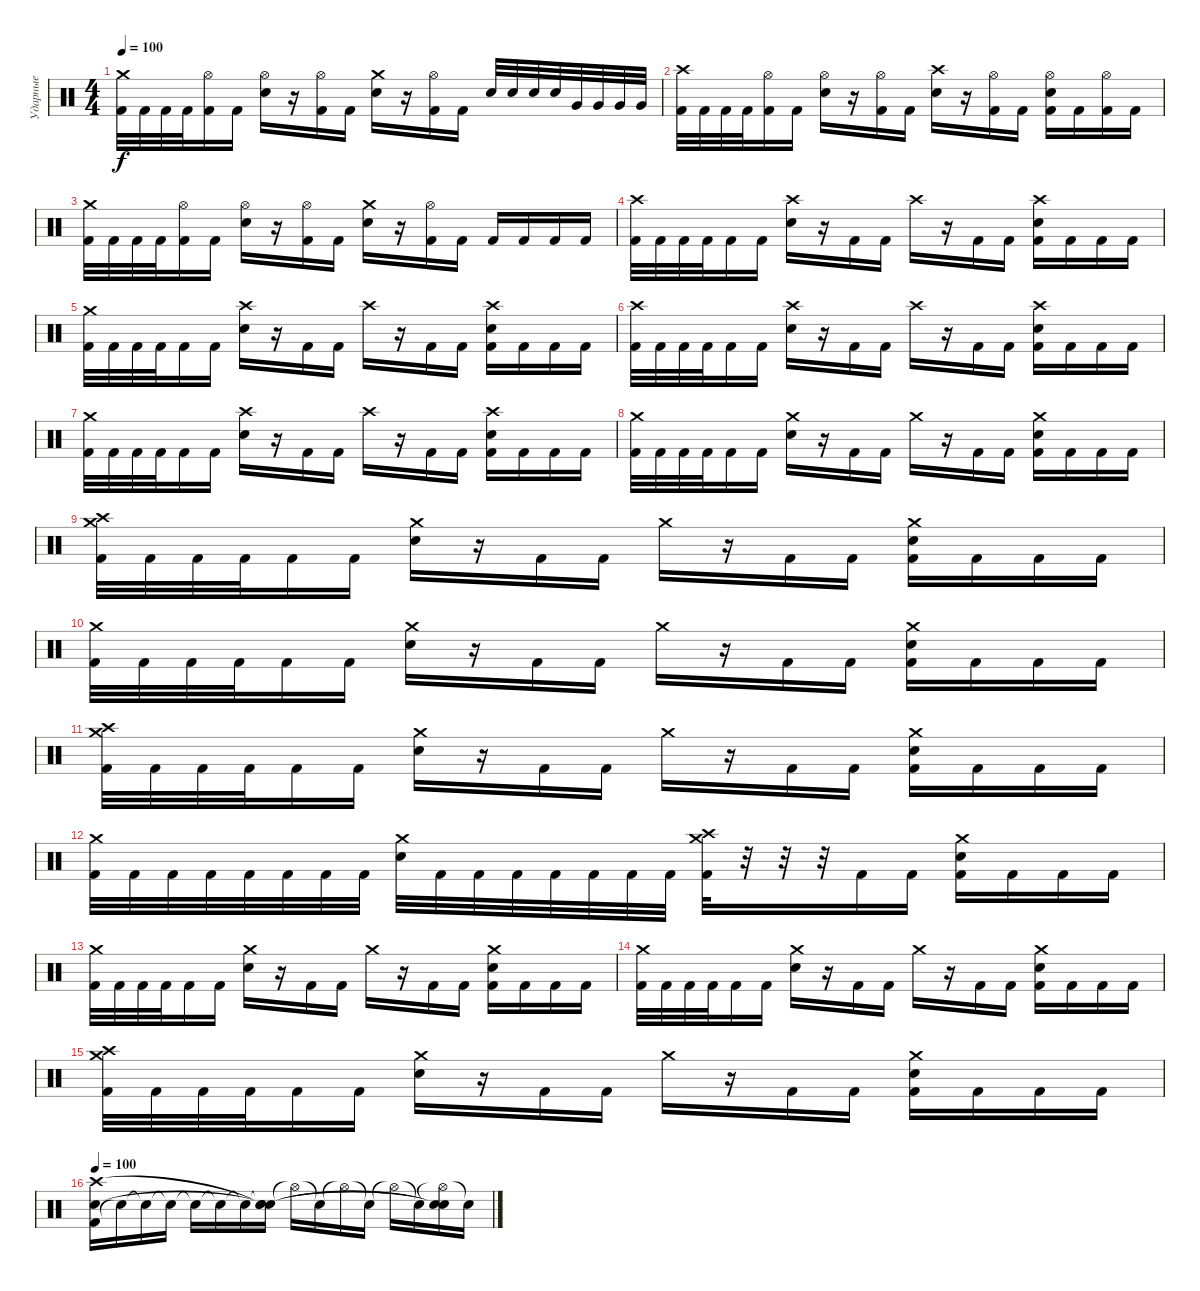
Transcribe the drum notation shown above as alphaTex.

\track ("Ударные" "Ударные") {instrument percussion}
\staff {score}
\articulation defaults
\ts (4 4)
\tempo 100
\clef neutral
\ks c
("Crash medium (hit)" "Kick (hit) 2").32{dy f} "Kick (hit) 2".32 "Kick (hit) 2".32 "Kick (hit) 2".32 ("Hi-Hat (open)" "Kick (hit) 2").16 "Kick (hit) 2".16 ("Hi-Hat (open)" "Snare (hit) 2").16 r.16 ("Hi-Hat (open)" "Kick (hit) 2").16 "Kick (hit) 2".16 ("Crash medium (hit)" "Snare (hit) 2").16 r.16 ("Hi-Hat (open)" "Kick (hit) 2").16 "Kick (hit) 2".16 "Snare (hit) 2".32 "Snare (hit) 2".32 "Snare (hit) 2".32 "Snare (hit) 2".32 "Very Low Tom (hit)".32 "Very Low Tom (hit)".32 "Very Low Tom (hit)".32 "Very Low Tom (hit)".32 |
("Crash high (hit)" "Kick (hit) 2").32 "Kick (hit) 2".32 "Kick (hit) 2".32 "Kick (hit) 2".32 ("Hi-Hat (open)" "Kick (hit) 2").16 "Kick (hit) 2".16 ("Hi-Hat (open)" "Snare (hit) 2").16 r.16 ("Hi-Hat (open)" "Kick (hit) 2").16 "Kick (hit) 2".16 ("Crash high (hit)" "Snare (hit) 2").16 r.16 ("Hi-Hat (open)" "Kick (hit) 2").16 "Kick (hit) 2".16 ("Hi-Hat (open)" "Snare (hit) 2" "Kick (hit) 2").16 "Kick (hit) 2".16 ("Hi-Hat (open)" "Kick (hit) 2").16 "Kick (hit) 2".16 |
("Crash medium (hit)" "Kick (hit) 2").32 "Kick (hit) 2".32 "Kick (hit) 2".32 "Kick (hit) 2".32 ("Hi-Hat (open)" "Kick (hit) 2").16 "Kick (hit) 2".16 ("Hi-Hat (open)" "Snare (hit) 2").16 r.16 ("Hi-Hat (open)" "Kick (hit) 2").16 "Kick (hit) 2".16 ("Crash medium (hit)" "Snare (hit) 2").16 r.16 ("Hi-Hat (open)" "Kick (hit) 2").16 "Kick (hit) 2".16 "Kick (hit) 2".16 "Kick (hit) 2".16 "Kick (hit) 2".16 "Kick (hit) 2".16 |
("Crash high (hit)" "Kick (hit) 2").32 "Kick (hit) 2".32 "Kick (hit) 2".32 "Kick (hit) 2".32 "Kick (hit) 2".16 "Kick (hit) 2".16 ("Crash high (hit)" "Snare (hit) 2").16 r.16 "Kick (hit) 2".16 "Kick (hit) 2".16 "Crash high (hit)".16 r.16 "Kick (hit) 2".16 "Kick (hit) 2".16 ("Crash high (hit)" "Snare (hit) 2" "Kick (hit) 2").16 "Kick (hit) 2".16 "Kick (hit) 2".16 "Kick (hit) 2".16 |
("Crash medium (hit)" "Kick (hit) 2").32 "Kick (hit) 2".32 "Kick (hit) 2".32 "Kick (hit) 2".32 "Kick (hit) 2".16 "Kick (hit) 2".16 ("Crash high (hit)" "Snare (hit) 2").16 r.16 "Kick (hit) 2".16 "Kick (hit) 2".16 "Crash high (hit)".16 r.16 "Kick (hit) 2".16 "Kick (hit) 2".16 ("Crash high (hit)" "Snare (hit) 2" "Kick (hit) 2").16 "Kick (hit) 2".16 "Kick (hit) 2".16 "Kick (hit) 2".16 |
("Crash high (hit)" "Kick (hit) 2").32 "Kick (hit) 2".32 "Kick (hit) 2".32 "Kick (hit) 2".32 "Kick (hit) 2".16 "Kick (hit) 2".16 ("Crash high (hit)" "Snare (hit) 2").16 r.16 "Kick (hit) 2".16 "Kick (hit) 2".16 "Crash high (hit)".16 r.16 "Kick (hit) 2".16 "Kick (hit) 2".16 ("Crash high (hit)" "Snare (hit) 2" "Kick (hit) 2").16 "Kick (hit) 2".16 "Kick (hit) 2".16 "Kick (hit) 2".16 |
("Crash medium (hit)" "Kick (hit) 2").32 "Kick (hit) 2".32 "Kick (hit) 2".32 "Kick (hit) 2".32 "Kick (hit) 2".16 "Kick (hit) 2".16 ("Crash high (hit)" "Snare (hit) 2").16 r.16 "Kick (hit) 2".16 "Kick (hit) 2".16 "Crash high (hit)".16 r.16 "Kick (hit) 2".16 "Kick (hit) 2".16 ("Crash high (hit)" "Snare (hit) 2" "Kick (hit) 2").16 "Kick (hit) 2".16 "Kick (hit) 2".16 "Kick (hit) 2".16 |
("Crash medium (hit)" "Kick (hit) 2").32 "Kick (hit) 2".32 "Kick (hit) 2".32 "Kick (hit) 2".32 "Kick (hit) 2".16 "Kick (hit) 2".16 ("Crash medium (hit)" "Snare (hit) 2").16 r.16 "Kick (hit) 2".16 "Kick (hit) 2".16 "Crash medium (hit)".16 r.16 "Kick (hit) 2".16 "Kick (hit) 2".16 ("Crash medium (hit)" "Snare (hit) 2" "Kick (hit) 2").16 "Kick (hit) 2".16 "Kick (hit) 2".16 "Kick (hit) 2".16 |
("Crash medium (hit)" "Crash high (hit)" "Kick (hit) 2").32 "Kick (hit) 2".32 "Kick (hit) 2".32 "Kick (hit) 2".32 "Kick (hit) 2".16 "Kick (hit) 2".16 ("Crash medium (hit)" "Snare (hit) 2").16 r.16 "Kick (hit) 2".16 "Kick (hit) 2".16 "Crash medium (hit)".16 r.16 "Kick (hit) 2".16 "Kick (hit) 2".16 ("Crash medium (hit)" "Snare (hit) 2" "Kick (hit) 2").16 "Kick (hit) 2".16 "Kick (hit) 2".16 "Kick (hit) 2".16 |
("Crash medium (hit)" "Kick (hit) 2").32 "Kick (hit) 2".32 "Kick (hit) 2".32 "Kick (hit) 2".32 "Kick (hit) 2".16 "Kick (hit) 2".16 ("Crash medium (hit)" "Snare (hit) 2").16 r.16 "Kick (hit) 2".16 "Kick (hit) 2".16 "Crash medium (hit)".16 r.16 "Kick (hit) 2".16 "Kick (hit) 2".16 ("Crash medium (hit)" "Snare (hit) 2" "Kick (hit) 2").16 "Kick (hit) 2".16 "Kick (hit) 2".16 "Kick (hit) 2".16 |
("Crash medium (hit)" "Crash high (hit)" "Kick (hit) 2").32 "Kick (hit) 2".32 "Kick (hit) 2".32 "Kick (hit) 2".32 "Kick (hit) 2".16 "Kick (hit) 2".16 ("Crash medium (hit)" "Snare (hit) 2").16 r.16 "Kick (hit) 2".16 "Kick (hit) 2".16 "Crash medium (hit)".16 r.16 "Kick (hit) 2".16 "Kick (hit) 2".16 ("Crash medium (hit)" "Snare (hit) 2" "Kick (hit) 2").16 "Kick (hit) 2".16 "Kick (hit) 2".16 "Kick (hit) 2".16 |
("Crash medium (hit)" "Kick (hit) 2").32 "Kick (hit) 2".32 "Kick (hit) 2".32 "Kick (hit) 2".32 "Kick (hit) 2".32 "Kick (hit) 2".32 "Kick (hit) 2".32 "Kick (hit) 2".32 ("Crash medium (hit)" "Snare (hit) 2").32 "Kick (hit) 2".32 "Kick (hit) 2".32 "Kick (hit) 2".32 "Kick (hit) 2".32 "Kick (hit) 2".32 "Kick (hit) 2".32 "Kick (hit) 2".32 ("Crash medium (hit)" "Crash high (hit)" "Kick (hit) 2").32 r.32 r.32 r.32 "Kick (hit) 2".16 "Kick (hit) 2".16 ("Crash medium (hit)" "Snare (hit) 2" "Kick (hit) 2").16 "Kick (hit) 2".16 "Kick (hit) 2".16 "Kick (hit) 2".16 |
("Crash medium (hit)" "Kick (hit) 2").32 "Kick (hit) 2".32 "Kick (hit) 2".32 "Kick (hit) 2".32 "Kick (hit) 2".16 "Kick (hit) 2".16 ("Crash medium (hit)" "Snare (hit) 2").16 r.16 "Kick (hit) 2".16 "Kick (hit) 2".16 "Crash medium (hit)".16 r.16 "Kick (hit) 2".16 "Kick (hit) 2".16 ("Crash medium (hit)" "Snare (hit) 2" "Kick (hit) 2").16 "Kick (hit) 2".16 "Kick (hit) 2".16 "Kick (hit) 2".16 |
("Crash medium (hit)" "Kick (hit) 2").32 "Kick (hit) 2".32 "Kick (hit) 2".32 "Kick (hit) 2".32 "Kick (hit) 2".16 "Kick (hit) 2".16 ("Crash medium (hit)" "Snare (hit) 2").16 r.16 "Kick (hit) 2".16 "Kick (hit) 2".16 "Crash medium (hit)".16 r.16 "Kick (hit) 2".16 "Kick (hit) 2".16 ("Crash medium (hit)" "Snare (hit) 2" "Kick (hit) 2").16 "Kick (hit) 2".16 "Kick (hit) 2".16 "Kick (hit) 2".16 |
("Crash medium (hit)" "Crash high (hit)" "Kick (hit) 2").32 "Kick (hit) 2".32 "Kick (hit) 2".32 "Kick (hit) 2".32 "Kick (hit) 2".16 "Kick (hit) 2".16 ("Crash medium (hit)" "Snare (hit) 2").16 r.16 "Kick (hit) 2".16 "Kick (hit) 2".16 "Crash medium (hit)".16 r.16 "Kick (hit) 2".16 "Kick (hit) 2".16 ("Crash medium (hit)" "Snare (hit) 2" "Kick (hit) 2").16 "Kick (hit) 2".16 "Kick (hit) 2".16 "Kick (hit) 2".16 |
\tempo 100
("Kick (hit) 2" "Crash high (hit)" "Snare (hit) 2").16 "Snare (hit)"{t}.16 "Snare (hit)"{t}.16 "Snare (hit)"{t}.16 "Snare (hit)"{t}.16 "Snare (hit)"{t}.16 "Snare (hit)"{t}.16 ("Snare (hit)"{t} "Snare (hit)"{t} "Snare (hit)"{t}).16 "Hi-Hat (open)"{t}.16 "Snare (hit)"{t}.16 "Hi-Hat (open)"{t}.16 "Snare (hit)"{t}.16 "Hi-Hat (open)"{t}.16 "Snare (hit)"{t}.16 ("Hi-Hat (open)"{t} "Snare (hit)"{t} "Snare (hit)"{t}).16 "Snare (hit)"{t}.16
